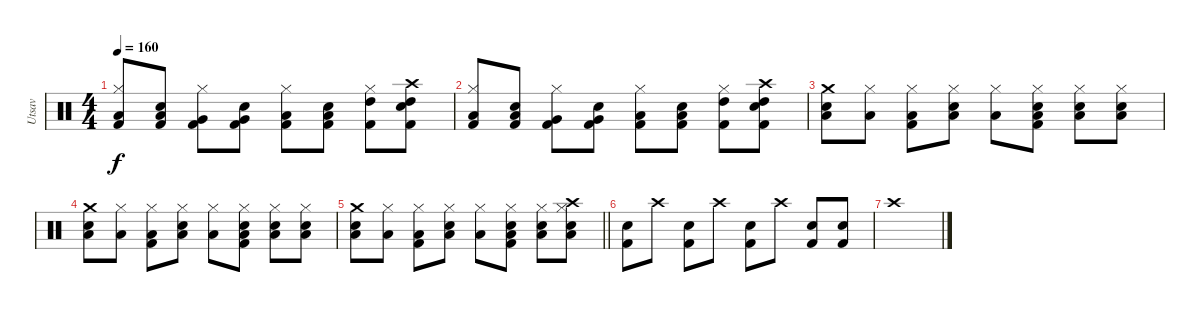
\track ("Utsav" "Utsav") {instrument percussion}
\staff {score}
\articulation defaults
\ts (4 4)
\tempo 160
\clef neutral
\ks c
("Low Tom (hit)" "Hi-Hat (closed)" "Kick (hit) 2").8{dy f} ("Low Tom (hit)" "Snare (hit) 2" "Kick (hit) 2").8 ("Very Low Tom (hit)" "Hi-Hat (closed)" "Kick (hit) 2").8 ("Very Low Tom (hit)" "Snare (hit) 2" "Kick (hit) 2").8 ("Low Floor Tom (hit)" "Hi-Hat (closed)" "Kick (hit) 2").8 ("Low Floor Tom (hit)" "Snare (hit) 2" "Kick (hit) 2").8 ("High Tom (hit)" "Hi-Hat (closed)" "Kick (hit) 2").8 ("High Tom (hit)" "Crash high (hit)" "Snare (hit) 2" "Kick (hit) 2").8 |
("Low Tom (hit)" "Hi-Hat (closed)" "Kick (hit) 2").8 ("Low Tom (hit)" "Snare (hit) 2" "Kick (hit) 2").8 ("Very Low Tom (hit)" "Hi-Hat (closed)" "Kick (hit) 2").8 ("Very Low Tom (hit)" "Snare (hit) 2" "Kick (hit) 2").8 ("Low Floor Tom (hit)" "Hi-Hat (closed)" "Kick (hit) 2").8 ("Low Floor Tom (hit)" "Snare (hit) 2" "Kick (hit) 2").8 ("High Tom (hit)" "Hi-Hat (closed)" "Kick (hit) 2").8 ("High Tom (hit)" "Crash high (hit)" "Snare (hit) 2" "Kick (hit) 2").8 |
("Crash medium (hit)" "Low Floor Tom (hit)" "Snare (hit) 2").8 ("Low Floor Tom (hit)" "Hi-Hat (closed)").8 ("Low Floor Tom (hit)" "Hi-Hat (closed)" "Kick (hit) 2").8 ("Low Floor Tom (hit)" "Hi-Hat (closed)" "Snare (hit) 2").8 ("Low Floor Tom (hit)" "Hi-Hat (closed)").8 ("Low Floor Tom (hit)" "Hi-Hat (closed)" "Snare (hit) 2" "Kick (hit) 2").8 ("Low Floor Tom (hit)" "Hi-Hat (closed)" "Snare (hit) 2").8 ("Low Floor Tom (hit)" "Hi-Hat (closed)" "Snare (hit) 2").8 |
("Crash medium (hit)" "Low Floor Tom (hit)" "Snare (hit) 2").8 ("Low Floor Tom (hit)" "Hi-Hat (closed)").8 ("Low Floor Tom (hit)" "Hi-Hat (closed)" "Kick (hit) 2").8 ("Low Floor Tom (hit)" "Hi-Hat (closed)" "Snare (hit) 2").8 ("Low Floor Tom (hit)" "Hi-Hat (closed)").8 ("Low Floor Tom (hit)" "Hi-Hat (closed)" "Snare (hit) 2" "Kick (hit) 2").8 ("Low Floor Tom (hit)" "Hi-Hat (closed)" "Snare (hit) 2").8 ("Low Floor Tom (hit)" "Hi-Hat (closed)" "Snare (hit) 2").8 |
\barLineRight lightlight
("Crash medium (hit)" "Low Floor Tom (hit)" "Snare (hit) 2").8 ("Low Floor Tom (hit)" "Hi-Hat (closed)").8 ("Low Floor Tom (hit)" "Hi-Hat (closed)" "Kick (hit) 2").8 ("Low Floor Tom (hit)" "Hi-Hat (closed)" "Snare (hit) 2").8 ("Low Floor Tom (hit)" "Hi-Hat (closed)").8 ("Low Floor Tom (hit)" "Hi-Hat (closed)" "Snare (hit) 2" "Kick (hit) 2").8 ("Low Floor Tom (hit)" "Hi-Hat (closed)" "Snare (hit) 2").8 ("Low Floor Tom (hit)" "Hi-Hat (closed)" "Snare (hit) 2" "Crash high (hit)").8 |
("Kick (hit) 2" "Snare (hit) 2").8 "Crash high (hit)".8 ("Kick (hit) 2" "Snare (hit) 2").8 "Crash high (hit)".8 ("Kick (hit) 2" "Snare (hit) 2").8 "Crash high (hit)".8 ("Kick (hit) 2" "Snare (hit) 2").8 ("Kick (hit) 2" "Snare (hit) 2").8 |
"Crash high (hit)".1
